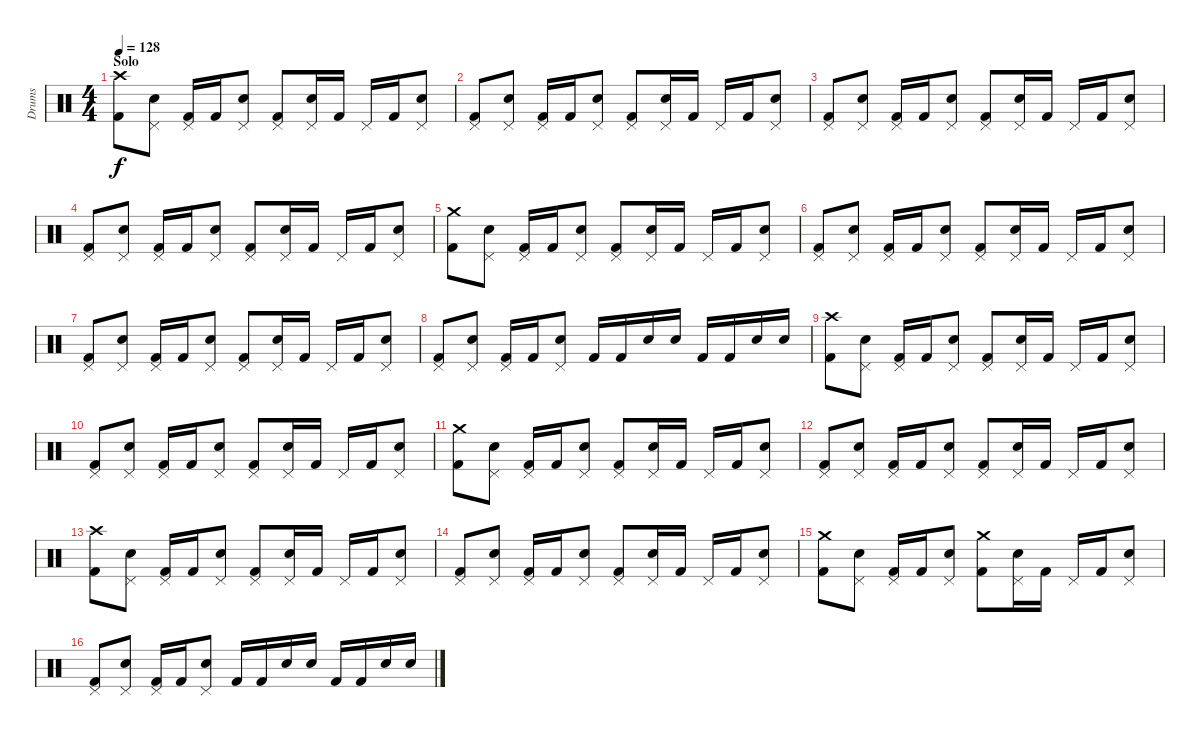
\track ("Drums" "Drums") {instrument percussion}
\staff {score}
\articulation defaults
\ts (4 4)
\section ("" "Solo")
\tempo 128
\clef neutral
\ks c
("Crash high (hit)" "Kick (hit) 2").8{dy f} ("Pedal Hi-Hat (hit)" "Snare (hit) 2").8 ("Pedal Hi-Hat (hit)" "Kick (hit) 2").16 "Kick (hit) 2".16 ("Pedal Hi-Hat (hit)" "Snare (hit) 2").8 ("Pedal Hi-Hat (hit)" "Kick (hit) 2").8 ("Pedal Hi-Hat (hit)" "Snare (hit) 2").16 "Kick (hit) 2".16 "Pedal Hi-Hat (hit)".16 "Kick (hit) 2".16 ("Pedal Hi-Hat (hit)" "Snare (hit) 2").8 |
("Pedal Hi-Hat (hit)" "Kick (hit) 2").8 ("Pedal Hi-Hat (hit)" "Snare (hit) 2").8 ("Pedal Hi-Hat (hit)" "Kick (hit) 2").16 "Kick (hit) 2".16 ("Pedal Hi-Hat (hit)" "Snare (hit) 2").8 ("Pedal Hi-Hat (hit)" "Kick (hit) 2").8 ("Pedal Hi-Hat (hit)" "Snare (hit) 2").16 "Kick (hit) 2".16 "Pedal Hi-Hat (hit)".16 "Kick (hit) 2".16 ("Pedal Hi-Hat (hit)" "Snare (hit) 2").8 |
("Pedal Hi-Hat (hit)" "Kick (hit) 2").8 ("Pedal Hi-Hat (hit)" "Snare (hit) 2").8 ("Pedal Hi-Hat (hit)" "Kick (hit) 2").16 "Kick (hit) 2".16 ("Pedal Hi-Hat (hit)" "Snare (hit) 2").8 ("Pedal Hi-Hat (hit)" "Kick (hit) 2").8 ("Pedal Hi-Hat (hit)" "Snare (hit) 2").16 "Kick (hit) 2".16 "Pedal Hi-Hat (hit)".16 "Kick (hit) 2".16 ("Pedal Hi-Hat (hit)" "Snare (hit) 2").8 |
("Pedal Hi-Hat (hit)" "Kick (hit) 2").8 ("Pedal Hi-Hat (hit)" "Snare (hit) 2").8 ("Pedal Hi-Hat (hit)" "Kick (hit) 2").16 "Kick (hit) 2".16 ("Pedal Hi-Hat (hit)" "Snare (hit) 2").8 ("Pedal Hi-Hat (hit)" "Kick (hit) 2").8 ("Pedal Hi-Hat (hit)" "Snare (hit) 2").16 "Kick (hit) 2".16 "Pedal Hi-Hat (hit)".16 "Kick (hit) 2".16 ("Pedal Hi-Hat (hit)" "Snare (hit) 2").8 |
("Crash medium (hit)" "Kick (hit) 2").8 ("Pedal Hi-Hat (hit)" "Snare (hit) 2").8 ("Pedal Hi-Hat (hit)" "Kick (hit) 2").16 "Kick (hit) 2".16 ("Pedal Hi-Hat (hit)" "Snare (hit) 2").8 ("Pedal Hi-Hat (hit)" "Kick (hit) 2").8 ("Pedal Hi-Hat (hit)" "Snare (hit) 2").16 "Kick (hit) 2".16 "Pedal Hi-Hat (hit)".16 "Kick (hit) 2".16 ("Pedal Hi-Hat (hit)" "Snare (hit) 2").8 |
("Pedal Hi-Hat (hit)" "Kick (hit) 2").8 ("Pedal Hi-Hat (hit)" "Snare (hit) 2").8 ("Pedal Hi-Hat (hit)" "Kick (hit) 2").16 "Kick (hit) 2".16 ("Pedal Hi-Hat (hit)" "Snare (hit) 2").8 ("Pedal Hi-Hat (hit)" "Kick (hit) 2").8 ("Pedal Hi-Hat (hit)" "Snare (hit) 2").16 "Kick (hit) 2".16 "Pedal Hi-Hat (hit)".16 "Kick (hit) 2".16 ("Pedal Hi-Hat (hit)" "Snare (hit) 2").8 |
("Pedal Hi-Hat (hit)" "Kick (hit) 2").8 ("Pedal Hi-Hat (hit)" "Snare (hit) 2").8 ("Pedal Hi-Hat (hit)" "Kick (hit) 2").16 "Kick (hit) 2".16 ("Pedal Hi-Hat (hit)" "Snare (hit) 2").8 ("Pedal Hi-Hat (hit)" "Kick (hit) 2").8 ("Pedal Hi-Hat (hit)" "Snare (hit) 2").16 "Kick (hit) 2".16 "Pedal Hi-Hat (hit)".16 "Kick (hit) 2".16 ("Pedal Hi-Hat (hit)" "Snare (hit) 2").8 |
("Pedal Hi-Hat (hit)" "Kick (hit) 2").8 ("Pedal Hi-Hat (hit)" "Snare (hit) 2").8 ("Pedal Hi-Hat (hit)" "Kick (hit) 2").16 "Kick (hit) 2".16 ("Pedal Hi-Hat (hit)" "Snare (hit) 2").8 "Kick (hit) 2".16 "Kick (hit) 2".16 "Snare (hit) 2".16 "Snare (hit) 2".16 "Kick (hit) 2".16 "Kick (hit) 2".16 "Snare (hit) 2".16 "Snare (hit) 2".16 |
("Crash high (hit)" "Kick (hit) 2").8 ("Pedal Hi-Hat (hit)" "Snare (hit) 2").8 ("Pedal Hi-Hat (hit)" "Kick (hit) 2").16 "Kick (hit) 2".16 ("Pedal Hi-Hat (hit)" "Snare (hit) 2").8 ("Pedal Hi-Hat (hit)" "Kick (hit) 2").8 ("Pedal Hi-Hat (hit)" "Snare (hit) 2").16 "Kick (hit) 2".16 "Pedal Hi-Hat (hit)".16 "Kick (hit) 2".16 ("Pedal Hi-Hat (hit)" "Snare (hit) 2").8 |
("Pedal Hi-Hat (hit)" "Kick (hit) 2").8 ("Pedal Hi-Hat (hit)" "Snare (hit) 2").8 ("Pedal Hi-Hat (hit)" "Kick (hit) 2").16 "Kick (hit) 2".16 ("Pedal Hi-Hat (hit)" "Snare (hit) 2").8 ("Pedal Hi-Hat (hit)" "Kick (hit) 2").8 ("Pedal Hi-Hat (hit)" "Snare (hit) 2").16 "Kick (hit) 2".16 "Pedal Hi-Hat (hit)".16 "Kick (hit) 2".16 ("Pedal Hi-Hat (hit)" "Snare (hit) 2").8 |
("Crash medium (hit)" "Kick (hit) 2").8 ("Pedal Hi-Hat (hit)" "Snare (hit) 2").8 ("Pedal Hi-Hat (hit)" "Kick (hit) 2").16 "Kick (hit) 2".16 ("Pedal Hi-Hat (hit)" "Snare (hit) 2").8 ("Pedal Hi-Hat (hit)" "Kick (hit) 2").8 ("Pedal Hi-Hat (hit)" "Snare (hit) 2").16 "Kick (hit) 2".16 "Pedal Hi-Hat (hit)".16 "Kick (hit) 2".16 ("Pedal Hi-Hat (hit)" "Snare (hit) 2").8 |
("Pedal Hi-Hat (hit)" "Kick (hit) 2").8 ("Pedal Hi-Hat (hit)" "Snare (hit) 2").8 ("Pedal Hi-Hat (hit)" "Kick (hit) 2").16 "Kick (hit) 2".16 ("Pedal Hi-Hat (hit)" "Snare (hit) 2").8 ("Pedal Hi-Hat (hit)" "Kick (hit) 2").8 ("Pedal Hi-Hat (hit)" "Snare (hit) 2").16 "Kick (hit) 2".16 "Pedal Hi-Hat (hit)".16 "Kick (hit) 2".16 ("Pedal Hi-Hat (hit)" "Snare (hit) 2").8 |
("Crash high (hit)" "Kick (hit) 2").8 ("Pedal Hi-Hat (hit)" "Snare (hit) 2").8 ("Pedal Hi-Hat (hit)" "Kick (hit) 2").16 "Kick (hit) 2".16 ("Pedal Hi-Hat (hit)" "Snare (hit) 2").8 ("Pedal Hi-Hat (hit)" "Kick (hit) 2").8 ("Pedal Hi-Hat (hit)" "Snare (hit) 2").16 "Kick (hit) 2".16 "Pedal Hi-Hat (hit)".16 "Kick (hit) 2".16 ("Pedal Hi-Hat (hit)" "Snare (hit) 2").8 |
("Pedal Hi-Hat (hit)" "Kick (hit) 2").8 ("Pedal Hi-Hat (hit)" "Snare (hit) 2").8 ("Pedal Hi-Hat (hit)" "Kick (hit) 2").16 "Kick (hit) 2".16 ("Pedal Hi-Hat (hit)" "Snare (hit) 2").8 ("Pedal Hi-Hat (hit)" "Kick (hit) 2").8 ("Pedal Hi-Hat (hit)" "Snare (hit) 2").16 "Kick (hit) 2".16 "Pedal Hi-Hat (hit)".16 "Kick (hit) 2".16 ("Pedal Hi-Hat (hit)" "Snare (hit) 2").8 |
("Crash medium (hit)" "Kick (hit) 2").8 ("Pedal Hi-Hat (hit)" "Snare (hit) 2").8 ("Pedal Hi-Hat (hit)" "Kick (hit) 2").16 "Kick (hit) 2".16 ("Pedal Hi-Hat (hit)" "Snare (hit) 2").8 ("Crash medium (hit)" "Kick (hit) 2").8 ("Pedal Hi-Hat (hit)" "Snare (hit) 2").16 "Kick (hit) 2".16 "Pedal Hi-Hat (hit)".16 "Kick (hit) 2".16 ("Pedal Hi-Hat (hit)" "Snare (hit) 2").8 |
("Pedal Hi-Hat (hit)" "Kick (hit) 2").8 ("Pedal Hi-Hat (hit)" "Snare (hit) 2").8 ("Pedal Hi-Hat (hit)" "Kick (hit) 2").16 "Kick (hit) 2".16 ("Pedal Hi-Hat (hit)" "Snare (hit) 2").8 "Kick (hit) 2".16 "Kick (hit) 2".16 "Snare (hit) 2".16 "Snare (hit) 2".16 "Kick (hit) 2".16 "Kick (hit) 2".16 "Snare (hit) 2".16 "Snare (hit) 2".16
